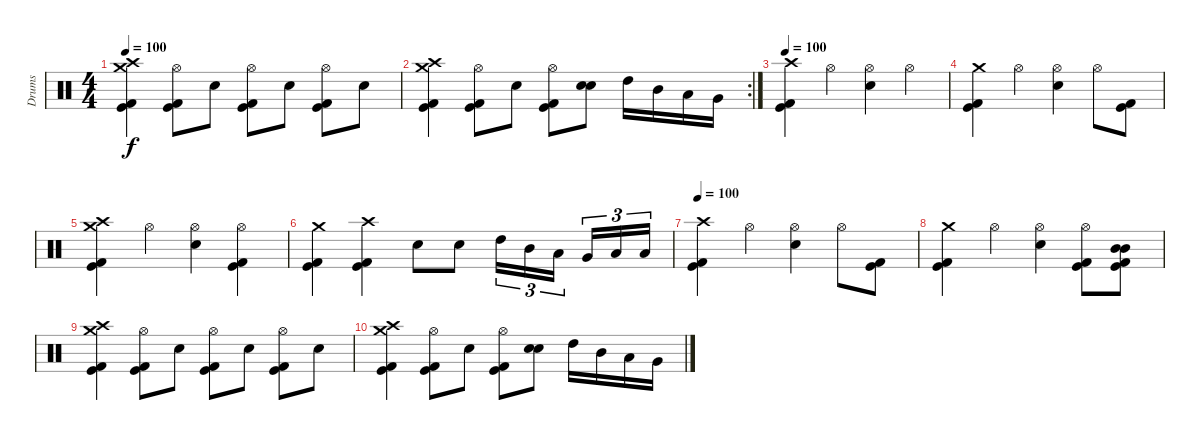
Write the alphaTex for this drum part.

\track ("Drums" "Drums") {instrument percussion}
\staff {score}
\articulation defaults
\ts (4 4)
\tempo 100
\clef neutral
\ks c
("Crash high (hit)" "Crash medium (hit)" "Kick (hit)" "Kick (hit) 2").4{dy f} ("Hi-Hat (open)" "Kick (hit)" "Kick (hit) 2").8 "Snare (hit) 2".8 ("Hi-Hat (open)" "Kick (hit)" "Kick (hit) 2").8 "Snare (hit) 2".8 ("Hi-Hat (open)" "Kick (hit)" "Kick (hit) 2").8 "Snare (hit) 2".8 |
\rc 2
("Crash high (hit)" "Crash medium (hit)" "Kick (hit)" "Kick (hit) 2").4 ("Hi-Hat (open)" "Kick (hit)" "Kick (hit) 2").8 "Snare (hit) 2".8 ("Hi-Hat (open)" "Kick (hit)" "Kick (hit) 2").8 ("Snare (hit) 2" "Snare (hit) 2").8 "High Tom (hit)".16 "Mid Tom (hit)".16 "Low Tom (hit)".16 "Very Low Tom (hit)".16 |
\tempo 100
("Crash high (hit)" "Kick (hit)" "Kick (hit) 2").4{volume 7} "Hi-Hat (open)".4 ("Hi-Hat (open)" "Snare (hit) 2").4 "Hi-Hat (open)".4 |
("Crash medium (hit)" "Kick (hit)" "Kick (hit) 2").4 "Hi-Hat (open)".4 ("Hi-Hat (open)" "Snare (hit) 2").4 "Hi-Hat (open)".8 ("Kick (hit)" "Kick (hit) 2").8 |
("Crash high (hit)" "Crash medium (hit)" "Kick (hit)" "Kick (hit) 2").4 "Hi-Hat (open)".4 ("Hi-Hat (open)" "Snare (hit) 2").4 ("Hi-Hat (open)" "Kick (hit)" "Kick (hit) 2").4 |
("Crash medium (hit)" "Kick (hit)" "Kick (hit) 2").4 ("Crash high (hit)" "Kick (hit)" "Kick (hit) 2").4 "Snare (hit) 2".8 "Snare (hit) 2".8 "High Tom (hit)".16{tu (3 2)} "Mid Tom (hit)".16{tu (3 2)} "Low Tom (hit)".16{tu (3 2)} "Very Low Tom (hit)".16{tu (3 2)} "Low Floor Tom (hit)".16{tu (3 2)} "Low Floor Tom (hit)".16{tu (3 2)} |
\tempo 100
("Crash high (hit)" "Kick (hit)" "Kick (hit) 2").4{volume 0} "Hi-Hat (open)".4 ("Hi-Hat (open)" "Snare (hit) 2").4 "Hi-Hat (open)".8 ("Kick (hit)" "Kick (hit) 2").8 |
("Crash medium (hit)" "Kick (hit)" "Kick (hit) 2").4 "Hi-Hat (open)".4 ("Hi-Hat (open)" "Snare (hit) 2").4 ("Hi-Hat (open)" "Kick (hit)" "Kick (hit) 2").8 ("Mid Tom (hit)" "Mid Tom (hit)" "Kick (hit)" "Kick (hit) 2").8 |
("Crash high (hit)" "Crash medium (hit)" "Kick (hit)" "Kick (hit) 2").4 ("Hi-Hat (open)" "Kick (hit)" "Kick (hit) 2").8 "Snare (hit) 2".8 ("Hi-Hat (open)" "Kick (hit)" "Kick (hit) 2").8 "Snare (hit) 2".8 ("Hi-Hat (open)" "Kick (hit)" "Kick (hit) 2").8 "Snare (hit) 2".8 |
("Crash high (hit)" "Crash medium (hit)" "Kick (hit)" "Kick (hit) 2").4 ("Hi-Hat (open)" "Kick (hit)" "Kick (hit) 2").8 "Snare (hit) 2".8 ("Hi-Hat (open)" "Kick (hit)" "Kick (hit) 2").8 ("Snare (hit) 2" "Snare (hit) 2").8 "High Tom (hit)".16 "Mid Tom (hit)".16 "Low Tom (hit)".16 "Very Low Tom (hit)".16
